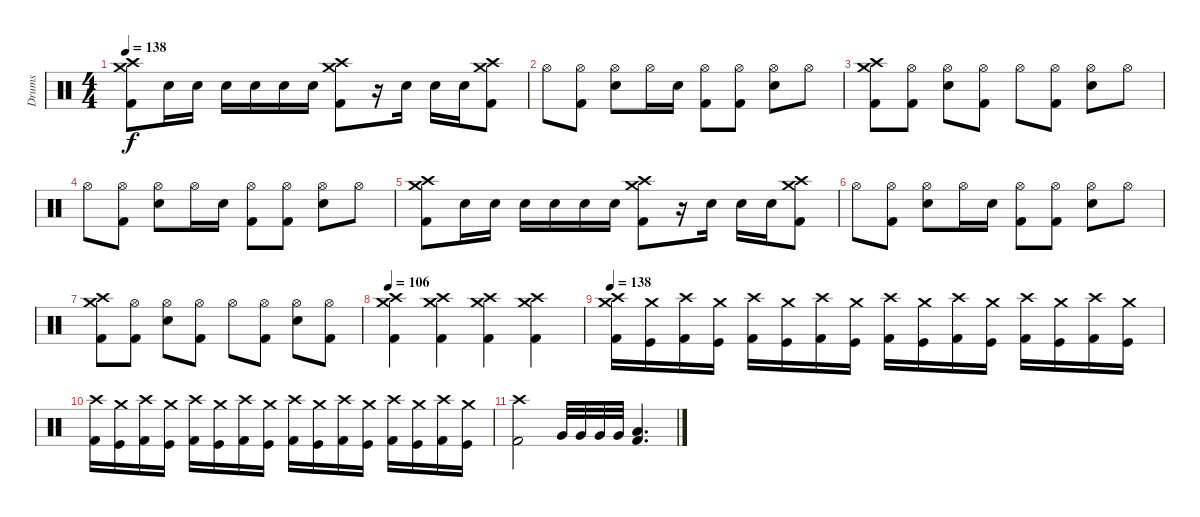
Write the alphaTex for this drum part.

\track ("Drums" "Drums") {instrument percussion}
\staff {score}
\articulation defaults
\ts (4 4)
\tempo 138
\clef neutral
\ks c
("Crash medium (hit)" "Crash high (hit)" "Kick (hit) 2").8{dy f} "Electric Snare (hit)".16 "Electric Snare (hit)".16 "Electric Snare (hit)".16 "Electric Snare (hit)".16 "Electric Snare (hit)".16 "Electric Snare (hit)".16 ("Crash medium (hit)" "Crash high (hit)" "Kick (hit) 2").8 r.16 "Electric Snare (hit)".16 "Electric Snare (hit)".16 "Electric Snare (hit)".16 ("Crash medium (hit)" "Crash high (hit)" "Kick (hit) 2").8 |
"Hi-Hat (open)".8 ("Hi-Hat (open)" "Kick (hit) 2").8 ("Hi-Hat (open)" "Electric Snare (hit)").8 "Hi-Hat (open)".16 "Electric Snare (hit)".16 ("Hi-Hat (open)" "Kick (hit) 2").8 ("Hi-Hat (open)" "Kick (hit) 2").8 ("Hi-Hat (open)" "Electric Snare (hit)").8 "Hi-Hat (open)".8 |
("Crash medium (hit)" "Crash high (hit)" "Kick (hit) 2").8 ("Hi-Hat (open)" "Kick (hit) 2").8 ("Hi-Hat (open)" "Electric Snare (hit)").8 ("Hi-Hat (open)" "Kick (hit) 2").8 "Hi-Hat (open)".8 ("Hi-Hat (open)" "Kick (hit) 2").8 ("Hi-Hat (open)" "Electric Snare (hit)").8 "Hi-Hat (open)".8 |
"Hi-Hat (open)".8 ("Hi-Hat (open)" "Kick (hit) 2").8 ("Hi-Hat (open)" "Electric Snare (hit)").8 "Hi-Hat (open)".16 "Electric Snare (hit)".16 ("Hi-Hat (open)" "Kick (hit) 2").8 ("Hi-Hat (open)" "Kick (hit) 2").8 ("Hi-Hat (open)" "Electric Snare (hit)").8 "Hi-Hat (open)".8 |
("Crash medium (hit)" "Crash high (hit)" "Kick (hit) 2").8 "Electric Snare (hit)".16 "Electric Snare (hit)".16 "Electric Snare (hit)".16 "Electric Snare (hit)".16 "Electric Snare (hit)".16 "Electric Snare (hit)".16 ("Crash medium (hit)" "Crash high (hit)" "Kick (hit) 2").8 r.16 "Electric Snare (hit)".16 "Electric Snare (hit)".16 "Electric Snare (hit)".16 ("Crash medium (hit)" "Crash high (hit)" "Kick (hit) 2").8 |
"Hi-Hat (open)".8 ("Hi-Hat (open)" "Kick (hit) 2").8 ("Hi-Hat (open)" "Electric Snare (hit)").8 "Hi-Hat (open)".16 "Electric Snare (hit)".16 ("Hi-Hat (open)" "Kick (hit) 2").8 ("Hi-Hat (open)" "Kick (hit) 2").8 ("Hi-Hat (open)" "Electric Snare (hit)").8 "Hi-Hat (open)".8 |
("Crash medium (hit)" "Crash high (hit)" "Kick (hit) 2").8 ("Hi-Hat (open)" "Kick (hit) 2").8 ("Hi-Hat (open)" "Electric Snare (hit)").8 ("Hi-Hat (open)" "Kick (hit) 2").8 "Hi-Hat (open)".8 ("Hi-Hat (open)" "Kick (hit) 2").8 ("Hi-Hat (open)" "Electric Snare (hit)").8 ("Hi-Hat (open)" "Kick (hit) 2").8 |
\tempo 106
("Crash medium (hit)" "Crash high (hit)" "Kick (hit) 2").4 ("Crash medium (hit)" "Crash high (hit)" "Kick (hit) 2").4 ("Crash medium (hit)" "Crash high (hit)" "Kick (hit) 2").4 ("Crash medium (hit)" "Crash high (hit)" "Kick (hit) 2").4 |
\tempo 138
("Crash medium (hit)" "Crash high (hit)" "Kick (hit) 2").16 ("Crash medium (hit)" "Kick (hit)").16 ("Crash high (hit)" "Kick (hit) 2").16 ("Crash medium (hit)" "Kick (hit)").16 ("Crash high (hit)" "Kick (hit) 2").16 ("Crash medium (hit)" "Kick (hit)").16 ("Crash high (hit)" "Kick (hit) 2").16 ("Crash medium (hit)" "Kick (hit)").16 ("Crash high (hit)" "Kick (hit) 2").16 ("Crash medium (hit)" "Kick (hit)").16 ("Crash high (hit)" "Kick (hit) 2").16 ("Crash medium (hit)" "Kick (hit)").16 ("Crash high (hit)" "Kick (hit) 2").16 ("Crash medium (hit)" "Kick (hit)").16 ("Crash high (hit)" "Kick (hit) 2").16 ("Crash medium (hit)" "Kick (hit)").16 |
("Crash high (hit)" "Kick (hit) 2").16 ("Crash medium (hit)" "Kick (hit)").16 ("Crash high (hit)" "Kick (hit) 2").16 ("Crash medium (hit)" "Kick (hit)").16 ("Crash high (hit)" "Kick (hit) 2").16 ("Crash medium (hit)" "Kick (hit)").16 ("Crash high (hit)" "Kick (hit) 2").16 ("Crash medium (hit)" "Kick (hit)").16 ("Crash high (hit)" "Kick (hit) 2").16 ("Crash medium (hit)" "Kick (hit)").16 ("Crash high (hit)" "Kick (hit) 2").16 ("Crash medium (hit)" "Kick (hit)").16 ("Crash high (hit)" "Kick (hit) 2").16 ("Crash medium (hit)" "Kick (hit)").16 ("Crash high (hit)" "Kick (hit) 2").16 ("Crash medium (hit)" "Kick (hit)").16 |
("Crash high (hit)" "Kick (hit) 2").2 "Very Low Tom (hit)".32 "Very Low Tom (hit)".32 "Very Low Tom (hit)".32 "Very Low Tom (hit)".32 ("Low Floor Tom (hit)" "Kick (hit) 2").4{d}
